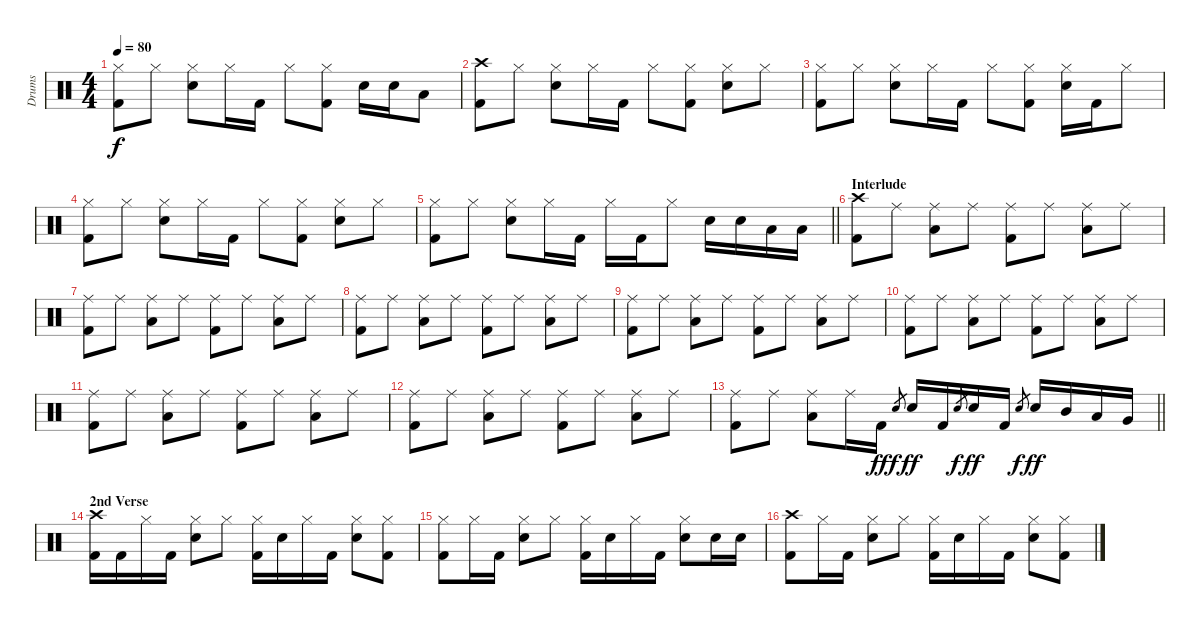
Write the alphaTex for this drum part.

\track ("Drums" "Drums") {instrument percussion}
\staff {score}
\articulation defaults
\ts (4 4)
\tempo 80
\clef neutral
\ks c
("Hi-Hat (closed)" "Kick (hit) 2").8{dy f} "Hi-Hat (closed)".8 ("Hi-Hat (closed)" "Snare (hit) 2").8 "Hi-Hat (closed)".16 "Kick (hit) 2".16 "Hi-Hat (closed)".8 ("Hi-Hat (closed)" "Kick (hit) 2").8 "Snare (hit) 2".16 "Snare (hit) 2".16 "Low Tom (hit)".8 |
("Crash high (hit)" "Kick (hit) 2").8 "Hi-Hat (closed)".8 ("Hi-Hat (closed)" "Snare (hit) 2").8 "Hi-Hat (closed)".16 "Kick (hit) 2".16 "Hi-Hat (closed)".8 ("Hi-Hat (closed)" "Kick (hit) 2").8 ("Hi-Hat (closed)" "Snare (hit) 2").8 "Hi-Hat (closed)".8 |
("Hi-Hat (closed)" "Kick (hit) 2").8 "Hi-Hat (closed)".8 ("Hi-Hat (closed)" "Snare (hit) 2").8 "Hi-Hat (closed)".16 "Kick (hit) 2".16 "Hi-Hat (closed)".8 ("Hi-Hat (closed)" "Kick (hit) 2").8 ("Hi-Hat (closed)" "Snare (hit) 2").16 "Kick (hit) 2".16 "Hi-Hat (closed)".8 |
("Hi-Hat (closed)" "Kick (hit) 2").8 "Hi-Hat (closed)".8 ("Hi-Hat (closed)" "Snare (hit) 2").8 "Hi-Hat (closed)".16 "Kick (hit) 2".16 "Hi-Hat (closed)".8 ("Hi-Hat (closed)" "Kick (hit) 2").8 ("Hi-Hat (closed)" "Snare (hit) 2").8 "Hi-Hat (closed)".8 |
\barLineRight lightlight
("Hi-Hat (closed)" "Kick (hit) 2").8 "Hi-Hat (closed)".8 ("Hi-Hat (closed)" "Snare (hit) 2").8 "Hi-Hat (closed)".16 "Kick (hit) 2".16 "Hi-Hat (closed)".16 "Kick (hit) 2".16 "Hi-Hat (closed)".8 "Snare (hit) 2".16 "Snare (hit) 2".16 "Low Tom (hit)".16 "Low Tom (hit)".16 |
\section ("" "Interlude")
("Crash high (hit)" "Kick (hit) 2").8 "Ride (middle)".8 ("Ride (middle)" "Low Tom (hit)").8 "Ride (middle)".8 ("Ride (middle)" "Kick (hit) 2").8 "Ride (middle)".8 ("Ride (middle)" "Low Tom (hit)").8 "Ride (middle)".8 |
("Ride (middle)" "Kick (hit) 2").8 "Ride (middle)".8 ("Ride (middle)" "Low Tom (hit)").8 "Ride (middle)".8 ("Ride (middle)" "Kick (hit) 2").8 "Ride (middle)".8 ("Ride (middle)" "Low Tom (hit)").8 "Ride (middle)".8 |
("Ride (middle)" "Kick (hit) 2").8 "Ride (middle)".8 ("Ride (middle)" "Low Tom (hit)").8 "Ride (middle)".8 ("Ride (middle)" "Kick (hit) 2").8 "Ride (middle)".8 ("Ride (middle)" "Low Tom (hit)").8 "Ride (middle)".8 |
("Ride (middle)" "Kick (hit) 2").8 "Ride (middle)".8 ("Ride (middle)" "Low Tom (hit)").8 "Ride (middle)".8 ("Ride (middle)" "Kick (hit) 2").8 "Ride (middle)".8 ("Ride (middle)" "Low Tom (hit)").8 "Ride (middle)".8 |
("Ride (middle)" "Kick (hit) 2").8 "Ride (middle)".8 ("Ride (middle)" "Low Tom (hit)").8 "Ride (middle)".8 ("Ride (middle)" "Kick (hit) 2").8 "Ride (middle)".8 ("Ride (middle)" "Low Tom (hit)").8 "Ride (middle)".8 |
("Ride (middle)" "Kick (hit) 2").8 "Ride (middle)".8 ("Ride (middle)" "Low Tom (hit)").8 "Ride (middle)".8 ("Ride (middle)" "Kick (hit) 2").8 "Ride (middle)".8 ("Ride (middle)" "Low Tom (hit)").8 "Ride (middle)".8 |
("Ride (middle)" "Kick (hit) 2").8 "Ride (middle)".8 ("Ride (middle)" "Low Tom (hit)").8 "Ride (middle)".8 ("Ride (middle)" "Kick (hit) 2").8 "Ride (middle)".8 ("Ride (middle)" "Low Tom (hit)").8 "Ride (middle)".8 |
\barLineRight lightlight
("Ride (middle)" "Kick (hit) 2").8 "Ride (middle)".8 ("Ride (middle)" "Low Tom (hit)").8 "Ride (middle)".16 "Kick (hit) 2".16{dy ff} "Snare (hit) 2".8{gr dy f} "Snare (hit) 2".16{dy ff} "Kick (hit) 2".16 "Snare (hit) 2".8{gr dy f} "Snare (hit) 2".16{dy ff} "Kick (hit) 2".16 "Snare (hit) 2".8{gr dy f} "Snare (hit) 2".16{dy ff} "Mid Tom (hit)".16 "Low Tom (hit)".16 "Very Low Tom (hit)".16 |
\section ("" "2nd Verse")
("Crash high (hit)" "Kick (hit) 2").16 "Kick (hit) 2".16 "Hi-Hat (closed)".16 "Kick (hit) 2".16 ("Hi-Hat (closed)" "Snare (hit) 2").8 "Hi-Hat (closed)".8 ("Hi-Hat (closed)" "Kick (hit) 2").16 "Snare (hit) 2".16 "Hi-Hat (closed)".16 "Kick (hit) 2".16 ("Hi-Hat (closed)" "Snare (hit) 2").8 ("Hi-Hat (closed)" "Kick (hit) 2").8 |
("Hi-Hat (closed)" "Kick (hit) 2").8 "Hi-Hat (closed)".16 "Kick (hit) 2".16 ("Hi-Hat (closed)" "Snare (hit) 2").8 "Hi-Hat (closed)".8 ("Hi-Hat (closed)" "Kick (hit) 2").16 "Snare (hit) 2".16 "Hi-Hat (closed)".16 "Kick (hit) 2".16 ("Hi-Hat (closed)" "Snare (hit) 2").8 "Snare (hit) 2".16 "Snare (hit) 2".16 |
("Crash high (hit)" "Kick (hit) 2").8 "Hi-Hat (closed)".16 "Kick (hit) 2".16 ("Hi-Hat (closed)" "Snare (hit) 2").8 "Hi-Hat (closed)".8 ("Hi-Hat (closed)" "Kick (hit) 2").16 "Snare (hit) 2".16 "Hi-Hat (closed)".16 "Kick (hit) 2".16 ("Hi-Hat (closed)" "Snare (hit) 2").8 ("Hi-Hat (closed)" "Kick (hit) 2").8
